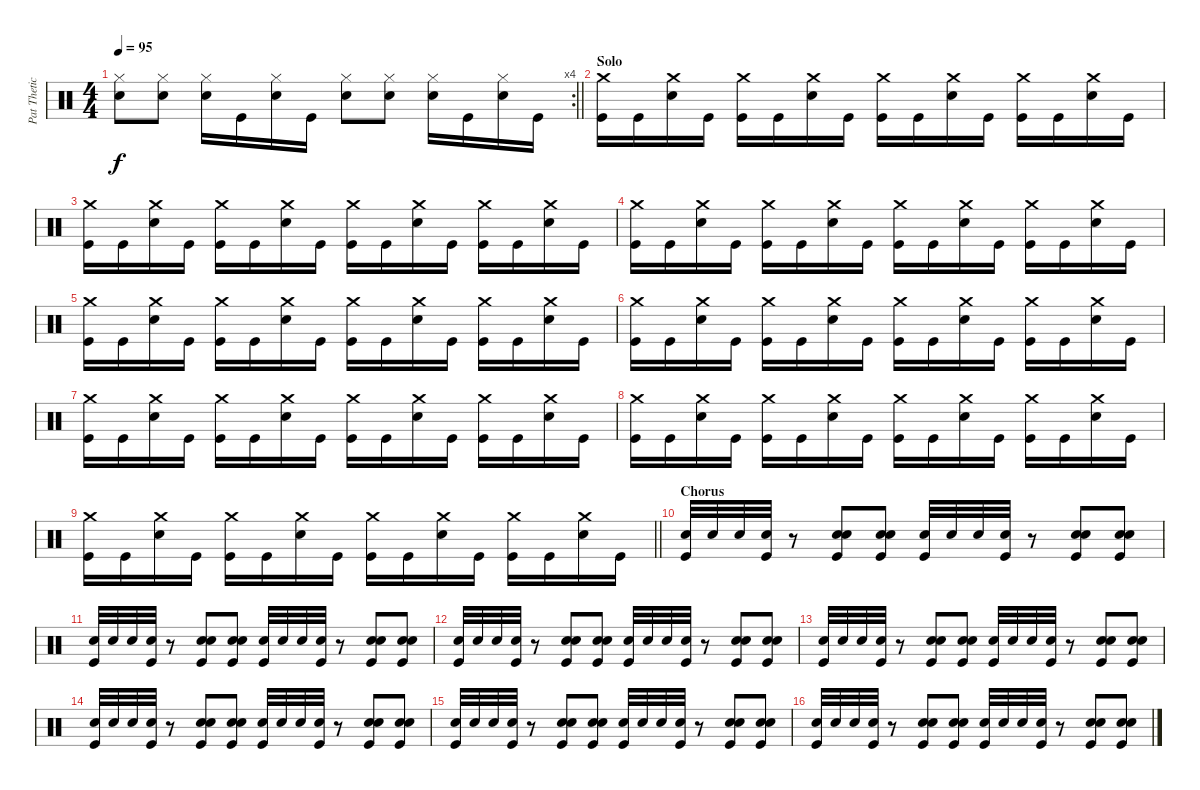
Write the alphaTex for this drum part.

\track ("Pat Thetic" "Pat Thetic") {instrument percussion}
\staff {score}
\articulation defaults
\rc 4
\ts (4 4)
\tempo 95
\clef neutral
\barLineRight lightlight
\ks c
("Hi-Hat (closed)" "Electric Snare (hit)").8{dy f} ("Hi-Hat (closed)" "Electric Snare (hit)").8 ("Hi-Hat (closed)" "Electric Snare (hit)").16 "Kick (hit)".16 ("Hi-Hat (closed)" "Electric Snare (hit)").16 "Kick (hit)".16 ("Hi-Hat (closed)" "Electric Snare (hit)").8 ("Hi-Hat (closed)" "Electric Snare (hit)").8 ("Hi-Hat (closed)" "Electric Snare (hit)").16 "Kick (hit)".16 ("Hi-Hat (closed)" "Electric Snare (hit)").16 "Kick (hit)".16 |
\section ("" "Solo")
("Crash medium (hit)" "Kick (hit)").16 "Kick (hit)".16 ("Crash medium (hit)" "Electric Snare (hit)").16 "Kick (hit)".16 ("Crash medium (hit)" "Kick (hit)").16 "Kick (hit)".16 ("Crash medium (hit)" "Electric Snare (hit)").16 "Kick (hit)".16 ("Crash medium (hit)" "Kick (hit)").16 "Kick (hit)".16 ("Crash medium (hit)" "Electric Snare (hit)").16 "Kick (hit)".16 ("Crash medium (hit)" "Kick (hit)").16 "Kick (hit)".16 ("Crash medium (hit)" "Electric Snare (hit)").16 "Kick (hit)".16 |
("Crash medium (hit)" "Kick (hit)").16 "Kick (hit)".16 ("Crash medium (hit)" "Electric Snare (hit)").16 "Kick (hit)".16 ("Crash medium (hit)" "Kick (hit)").16 "Kick (hit)".16 ("Crash medium (hit)" "Electric Snare (hit)").16 "Kick (hit)".16 ("Crash medium (hit)" "Kick (hit)").16 "Kick (hit)".16 ("Crash medium (hit)" "Electric Snare (hit)").16 "Kick (hit)".16 ("Crash medium (hit)" "Kick (hit)").16 "Kick (hit)".16 ("Crash medium (hit)" "Electric Snare (hit)").16 "Kick (hit)".16 |
("Crash medium (hit)" "Kick (hit)").16 "Kick (hit)".16 ("Crash medium (hit)" "Electric Snare (hit)").16 "Kick (hit)".16 ("Crash medium (hit)" "Kick (hit)").16 "Kick (hit)".16 ("Crash medium (hit)" "Electric Snare (hit)").16 "Kick (hit)".16 ("Crash medium (hit)" "Kick (hit)").16 "Kick (hit)".16 ("Crash medium (hit)" "Electric Snare (hit)").16 "Kick (hit)".16 ("Crash medium (hit)" "Kick (hit)").16 "Kick (hit)".16 ("Crash medium (hit)" "Electric Snare (hit)").16 "Kick (hit)".16 |
("Crash medium (hit)" "Kick (hit)").16 "Kick (hit)".16 ("Crash medium (hit)" "Electric Snare (hit)").16 "Kick (hit)".16 ("Crash medium (hit)" "Kick (hit)").16 "Kick (hit)".16 ("Crash medium (hit)" "Electric Snare (hit)").16 "Kick (hit)".16 ("Crash medium (hit)" "Kick (hit)").16 "Kick (hit)".16 ("Crash medium (hit)" "Electric Snare (hit)").16 "Kick (hit)".16 ("Crash medium (hit)" "Kick (hit)").16 "Kick (hit)".16 ("Crash medium (hit)" "Electric Snare (hit)").16 "Kick (hit)".16 |
("Crash medium (hit)" "Kick (hit)").16 "Kick (hit)".16 ("Crash medium (hit)" "Electric Snare (hit)").16 "Kick (hit)".16 ("Crash medium (hit)" "Kick (hit)").16 "Kick (hit)".16 ("Crash medium (hit)" "Electric Snare (hit)").16 "Kick (hit)".16 ("Crash medium (hit)" "Kick (hit)").16 "Kick (hit)".16 ("Crash medium (hit)" "Electric Snare (hit)").16 "Kick (hit)".16 ("Crash medium (hit)" "Kick (hit)").16 "Kick (hit)".16 ("Crash medium (hit)" "Electric Snare (hit)").16 "Kick (hit)".16 |
("Crash medium (hit)" "Kick (hit)").16 "Kick (hit)".16 ("Crash medium (hit)" "Electric Snare (hit)").16 "Kick (hit)".16 ("Crash medium (hit)" "Kick (hit)").16 "Kick (hit)".16 ("Crash medium (hit)" "Electric Snare (hit)").16 "Kick (hit)".16 ("Crash medium (hit)" "Kick (hit)").16 "Kick (hit)".16 ("Crash medium (hit)" "Electric Snare (hit)").16 "Kick (hit)".16 ("Crash medium (hit)" "Kick (hit)").16 "Kick (hit)".16 ("Crash medium (hit)" "Electric Snare (hit)").16 "Kick (hit)".16 |
("Crash medium (hit)" "Kick (hit)").16 "Kick (hit)".16 ("Crash medium (hit)" "Electric Snare (hit)").16 "Kick (hit)".16 ("Crash medium (hit)" "Kick (hit)").16 "Kick (hit)".16 ("Crash medium (hit)" "Electric Snare (hit)").16 "Kick (hit)".16 ("Crash medium (hit)" "Kick (hit)").16 "Kick (hit)".16 ("Crash medium (hit)" "Electric Snare (hit)").16 "Kick (hit)".16 ("Crash medium (hit)" "Kick (hit)").16 "Kick (hit)".16 ("Crash medium (hit)" "Electric Snare (hit)").16 "Kick (hit)".16 |
\barLineRight lightlight
("Crash medium (hit)" "Kick (hit)").16 "Kick (hit)".16 ("Crash medium (hit)" "Electric Snare (hit)").16 "Kick (hit)".16 ("Crash medium (hit)" "Kick (hit)").16 "Kick (hit)".16 ("Crash medium (hit)" "Electric Snare (hit)").16 "Kick (hit)".16 ("Crash medium (hit)" "Kick (hit)").16 "Kick (hit)".16 ("Crash medium (hit)" "Electric Snare (hit)").16 "Kick (hit)".16 ("Crash medium (hit)" "Kick (hit)").16 "Kick (hit)".16 ("Crash medium (hit)" "Electric Snare (hit)").16 "Kick (hit)".16 |
\section ("" "Chorus")
("Electric Snare (hit)" "Kick (hit)").32 "Electric Snare (hit)".32 "Electric Snare (hit)".32 ("Electric Snare (hit)" "Kick (hit)").32 r.8 ("Electric Snare (hit)" "Electric Snare (hit)" "Kick (hit)").8 ("Electric Snare (hit)" "Electric Snare (hit)" "Kick (hit)").8 ("Electric Snare (hit)" "Kick (hit)").32 "Electric Snare (hit)".32 "Electric Snare (hit)".32 ("Electric Snare (hit)" "Kick (hit)").32 r.8 ("Electric Snare (hit)" "Electric Snare (hit)" "Kick (hit)").8 ("Electric Snare (hit)" "Electric Snare (hit)" "Kick (hit)").8 |
("Electric Snare (hit)" "Kick (hit)").32 "Electric Snare (hit)".32 "Electric Snare (hit)".32 ("Electric Snare (hit)" "Kick (hit)").32 r.8 ("Electric Snare (hit)" "Electric Snare (hit)" "Kick (hit)").8 ("Electric Snare (hit)" "Electric Snare (hit)" "Kick (hit)").8 ("Electric Snare (hit)" "Kick (hit)").32 "Electric Snare (hit)".32 "Electric Snare (hit)".32 ("Electric Snare (hit)" "Kick (hit)").32 r.8 ("Electric Snare (hit)" "Electric Snare (hit)" "Kick (hit)").8 ("Electric Snare (hit)" "Electric Snare (hit)" "Kick (hit)").8 |
("Electric Snare (hit)" "Kick (hit)").32 "Electric Snare (hit)".32 "Electric Snare (hit)".32 ("Electric Snare (hit)" "Kick (hit)").32 r.8 ("Electric Snare (hit)" "Electric Snare (hit)" "Kick (hit)").8 ("Electric Snare (hit)" "Electric Snare (hit)" "Kick (hit)").8 ("Electric Snare (hit)" "Kick (hit)").32 "Electric Snare (hit)".32 "Electric Snare (hit)".32 ("Electric Snare (hit)" "Kick (hit)").32 r.8 ("Electric Snare (hit)" "Electric Snare (hit)" "Kick (hit)").8 ("Electric Snare (hit)" "Electric Snare (hit)" "Kick (hit)").8 |
("Electric Snare (hit)" "Kick (hit)").32 "Electric Snare (hit)".32 "Electric Snare (hit)".32 ("Electric Snare (hit)" "Kick (hit)").32 r.8 ("Electric Snare (hit)" "Electric Snare (hit)" "Kick (hit)").8 ("Electric Snare (hit)" "Electric Snare (hit)" "Kick (hit)").8 ("Electric Snare (hit)" "Kick (hit)").32 "Electric Snare (hit)".32 "Electric Snare (hit)".32 ("Electric Snare (hit)" "Kick (hit)").32 r.8 ("Electric Snare (hit)" "Electric Snare (hit)" "Kick (hit)").8 ("Electric Snare (hit)" "Electric Snare (hit)" "Kick (hit)").8 |
("Electric Snare (hit)" "Kick (hit)").32 "Electric Snare (hit)".32 "Electric Snare (hit)".32 ("Electric Snare (hit)" "Kick (hit)").32 r.8 ("Electric Snare (hit)" "Electric Snare (hit)" "Kick (hit)").8 ("Electric Snare (hit)" "Electric Snare (hit)" "Kick (hit)").8 ("Electric Snare (hit)" "Kick (hit)").32 "Electric Snare (hit)".32 "Electric Snare (hit)".32 ("Electric Snare (hit)" "Kick (hit)").32 r.8 ("Electric Snare (hit)" "Electric Snare (hit)" "Kick (hit)").8 ("Electric Snare (hit)" "Electric Snare (hit)" "Kick (hit)").8 |
("Electric Snare (hit)" "Kick (hit)").32 "Electric Snare (hit)".32 "Electric Snare (hit)".32 ("Electric Snare (hit)" "Kick (hit)").32 r.8 ("Electric Snare (hit)" "Electric Snare (hit)" "Kick (hit)").8 ("Electric Snare (hit)" "Electric Snare (hit)" "Kick (hit)").8 ("Electric Snare (hit)" "Kick (hit)").32 "Electric Snare (hit)".32 "Electric Snare (hit)".32 ("Electric Snare (hit)" "Kick (hit)").32 r.8 ("Electric Snare (hit)" "Electric Snare (hit)" "Kick (hit)").8 ("Electric Snare (hit)" "Electric Snare (hit)" "Kick (hit)").8 |
("Electric Snare (hit)" "Kick (hit)").32 "Electric Snare (hit)".32 "Electric Snare (hit)".32 ("Electric Snare (hit)" "Kick (hit)").32 r.8 ("Electric Snare (hit)" "Electric Snare (hit)" "Kick (hit)").8 ("Electric Snare (hit)" "Electric Snare (hit)" "Kick (hit)").8 ("Electric Snare (hit)" "Kick (hit)").32 "Electric Snare (hit)".32 "Electric Snare (hit)".32 ("Electric Snare (hit)" "Kick (hit)").32 r.8 ("Electric Snare (hit)" "Electric Snare (hit)" "Kick (hit)").8 ("Electric Snare (hit)" "Electric Snare (hit)" "Kick (hit)").8
